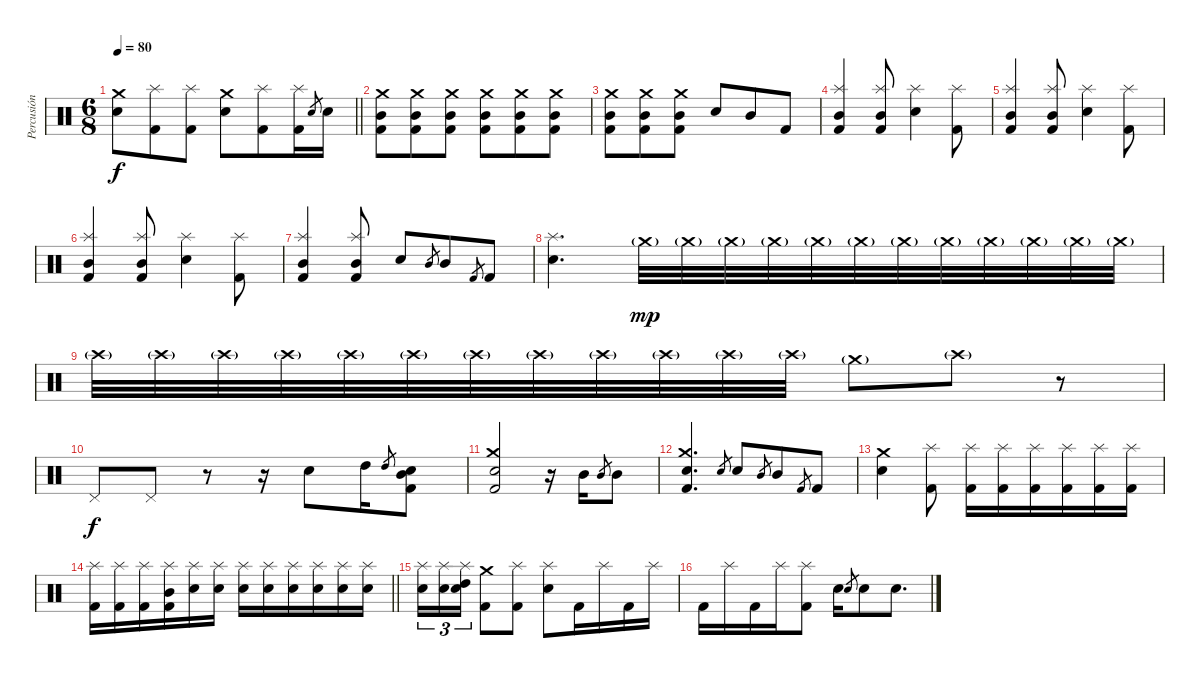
\track ("Percusión" "Percusión") {instrument percussion}
\staff {score}
\articulation defaults
\ts (6 8)
\tempo 80
\clef neutral
\barLineRight lightlight
\ks c
("Snare (hit) 2" "Crash medium (hit)").8{dy f} ("Kick (hit) 2" "Splash (hit)").8 ("Kick (hit) 2" "Splash (hit)").8 ("Snare (hit) 2" "Crash medium (hit)").8 ("Kick (hit) 2" "Splash (hit)").8 ("Kick (hit) 2" "Splash (hit)").16 "Snare (hit) 2".8{gr} "Snare (hit) 2".16 |
("Kick (hit) 2" "Mid Tom (hit)" "Crash medium (hit)").8 ("Kick (hit) 2" "Mid Tom (hit)" "Crash medium (hit)").8 ("Kick (hit) 2" "Mid Tom (hit)" "Crash medium (hit)").8 ("Kick (hit) 2" "Mid Tom (hit)" "Crash medium (hit)").8 ("Kick (hit) 2" "Mid Tom (hit)" "Crash medium (hit)").8 ("Kick (hit) 2" "Mid Tom (hit)" "Crash medium (hit)").8 |
("Kick (hit) 2" "Mid Tom (hit)" "Crash medium (hit)").8 ("Kick (hit) 2" "Mid Tom (hit)" "Crash medium (hit)").8 ("Kick (hit) 2" "Mid Tom (hit)" "Crash medium (hit)").8 "Snare (hit) 2".8 "Mid Tom (hit)".8 "Kick (hit) 2".8 |
("Kick (hit) 2" "Mid Tom (hit)" "Splash (hit)").4 ("Kick (hit) 2" "Mid Tom (hit)" "Splash (hit)").8 ("Snare (hit) 2" "Splash (hit)").4 ("Kick (hit) 2" "Splash (hit)").8 |
("Kick (hit) 2" "Mid Tom (hit)" "Splash (hit)").4 ("Kick (hit) 2" "Mid Tom (hit)" "Splash (hit)").8 ("Snare (hit) 2" "Splash (hit)").4 ("Kick (hit) 2" "Splash (hit)").8 |
("Kick (hit) 2" "Mid Tom (hit)" "Splash (hit)").4 ("Kick (hit) 2" "Mid Tom (hit)" "Splash (hit)").8 ("Snare (hit) 2" "Splash (hit)").4 ("Kick (hit) 2" "Splash (hit)").8 |
("Kick (hit) 2" "Mid Tom (hit)" "Splash (hit)").4 ("Kick (hit) 2" "Mid Tom (hit)" "Splash (hit)").8 "Snare (hit) 2".8 "Mid Tom (hit)".8{gr} "Mid Tom (hit)".8 "Kick (hit) 2".8{gr} "Kick (hit) 2".8 |
("Snare (hit) 2" "Splash (hit)").4{d} "Crash medium (hit)"{g}.32{dy mp} "Crash medium (hit)"{g}.32 "Crash medium (hit)"{g}.32 "Crash medium (hit)"{g}.32 "Crash medium (hit)"{g}.32 "Crash medium (hit)"{g}.32 "Crash medium (hit)"{g}.32 "Crash medium (hit)"{g}.32 "Crash medium (hit)"{g}.32 "Crash medium (hit)"{g}.32 "Crash medium (hit)"{g}.32 "Crash medium (hit)"{g}.32 |
"Crash high (hit)"{g}.32 "Crash high (hit)"{g}.32 "Crash high (hit)"{g}.32 "Crash high (hit)"{g}.32 "Crash high (hit)"{g}.32 "Crash high (hit)"{g}.32 "Crash high (hit)"{g}.32 "Crash high (hit)"{g}.32 "Crash high (hit)"{g}.32 "Crash high (hit)"{g}.32 "Crash high (hit)"{g}.32 "Crash high (hit)"{g}.32 "Crash medium (hit)"{g}.8 "Crash high (hit)"{g}.8 r.8 |
"Pedal Hi-Hat (hit)".8{dy f} "Pedal Hi-Hat (hit)".8 r.8 r.16 "Electric Snare (hit)".8 "High Tom (hit)".16 "High Tom (hit)".8{gr} ("Snare (hit) 2" "Kick (hit) 2" "Mid Tom (hit)").8 |
("Snare (hit) 2" "Crash medium (hit)" "Kick (hit) 2").2 r.16 "Mid Tom (hit)".16 "Mid Tom (hit)".8{gr} "Mid Tom (hit)".8 |
("Snare (hit) 2" "Crash medium (hit)" "Kick (hit) 2").4{d} "Snare (hit) 2".8{gr} "Snare (hit) 2".8 "Mid Tom (hit)".8{gr} "Mid Tom (hit)".8 "Kick (hit) 2".8{gr} "Kick (hit) 2".8 |
("Snare (hit) 2" "Crash medium (hit)").4 ("Kick (hit) 2" "Splash (hit)").8 ("Kick (hit) 2" "Splash (hit)").16 ("Kick (hit) 2" "Splash (hit)").16 ("Kick (hit) 2" "Splash (hit)").16 ("Kick (hit) 2" "Splash (hit)").16 ("Kick (hit) 2" "Splash (hit)").16 ("Kick (hit) 2" "Splash (hit)").16 |
\barLineRight lightlight
("Kick (hit) 2" "Splash (hit)").16 ("Kick (hit) 2" "Splash (hit)").16 ("Kick (hit) 2" "Splash (hit)").16 ("Kick (hit) 2" "Mid Tom (hit)" "Splash (hit)").16 ("Snare (hit) 2" "Splash (hit)").16 ("Snare (hit) 2" "Splash (hit)").16 ("Snare (hit) 2" "Splash (hit)").16 ("Snare (hit) 2" "Splash (hit)").16 ("Snare (hit) 2" "Splash (hit)").16 ("Snare (hit) 2" "Splash (hit)").16 ("Snare (hit) 2" "Splash (hit)").16 ("Snare (hit) 2" "Splash (hit)").16 |
("Snare (hit) 2" "Splash (hit)").16{tu (3 2)} ("Snare (hit) 2" "Splash (hit)").16{tu (3 2)} ("Snare (hit) 2" "High Tom (hit)" "Splash (hit)").16{tu (3 2)} ("Kick (hit) 2" "Crash medium (hit)").8 ("Kick (hit) 2" "Splash (hit)").8 ("Snare (hit) 2" "Splash (hit)").8 "Kick (hit) 2".16 "Splash (hit)".16 "Kick (hit) 2".16 "Splash (hit)".16 |
"Kick (hit) 2".16 "Splash (hit)".16 "Kick (hit) 2".16 "Splash (hit)".16 ("Kick (hit) 2" "Splash (hit)").8 "Snare (hit) 2".16 "Snare (hit) 2".8{gr} "Snare (hit) 2".8 "Snare (hit) 2".8{d}
